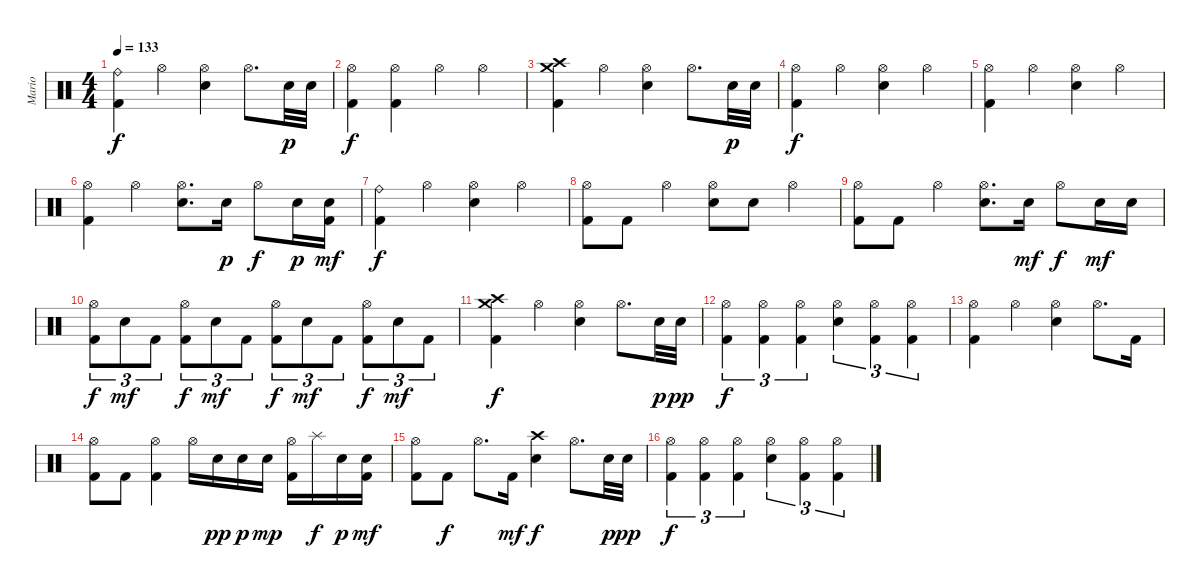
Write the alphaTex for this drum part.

\track ("Mario" "Mario") {instrument percussion}
\staff {score}
\articulation defaults
\ts (4 4)
\tempo 133
\clef neutral
\ks c
("Ride (bell)" "Kick (hit) 2").4{dy f} "Hi-Hat (open)".4 ("Hi-Hat (open)" "Electric Snare (hit)").4 "Hi-Hat (open)".8{d} "Electric Snare (hit)".32{dy p} "Electric Snare (hit)".32 |
("Hi-Hat (open)" "Kick (hit) 2").4{dy f} ("Hi-Hat (open)" "Kick (hit) 2").4 "Hi-Hat (open)".4 "Hi-Hat (open)".4 |
("Crash medium (hit)" "Crash high (hit)" "Kick (hit) 2").4 "Hi-Hat (open)".4 ("Hi-Hat (open)" "Electric Snare (hit)").4 "Hi-Hat (open)".8{d} "Electric Snare (hit)".32{dy p} "Electric Snare (hit)".32 |
("Hi-Hat (open)" "Kick (hit) 2").4{dy f} "Hi-Hat (open)".4 ("Hi-Hat (open)" "Electric Snare (hit)").4 "Hi-Hat (open)".4 |
("Hi-Hat (open)" "Kick (hit) 2").4 "Hi-Hat (open)".4 ("Hi-Hat (open)" "Electric Snare (hit)").4 "Hi-Hat (open)".4 |
("Hi-Hat (open)" "Kick (hit) 2").4 "Hi-Hat (open)".4 ("Hi-Hat (open)" "Electric Snare (hit)").8{d} "Electric Snare (hit)".16{dy p} "Hi-Hat (open)".8{dy f} "Electric Snare (hit)".16{dy p} ("Electric Snare (hit)" "Kick (hit) 2").16{dy mf} |
("Ride (bell)" "Kick (hit) 2").4{dy f} "Hi-Hat (open)".4 ("Hi-Hat (open)" "Electric Snare (hit)").4 "Hi-Hat (open)".4 |
("Hi-Hat (open)" "Kick (hit) 2").8 "Kick (hit) 2".8 "Hi-Hat (open)".4 ("Hi-Hat (open)" "Electric Snare (hit)").8 "Electric Snare (hit)".8 "Hi-Hat (open)".4 |
("Hi-Hat (open)" "Kick (hit) 2").8 "Kick (hit) 2".8 "Hi-Hat (open)".4 ("Hi-Hat (open)" "Electric Snare (hit)").8{d} "Electric Snare (hit)".16{dy mf} "Hi-Hat (open)".8{dy f} "Electric Snare (hit)".16{dy mf} "Electric Snare (hit)".16 |
("Hi-Hat (open)" "Kick (hit) 2").8{tu (3 2) dy f} "Electric Snare (hit)".8{tu (3 2) dy mf} "Kick (hit) 2".8{tu (3 2)} ("Hi-Hat (open)" "Kick (hit) 2").8{tu (3 2) dy f} "Electric Snare (hit)".8{tu (3 2) dy mf} "Kick (hit) 2".8{tu (3 2)} ("Hi-Hat (open)" "Kick (hit) 2").8{tu (3 2) dy f} "Electric Snare (hit)".8{tu (3 2) dy mf} "Kick (hit) 2".8{tu (3 2)} ("Hi-Hat (open)" "Kick (hit) 2").8{tu (3 2) dy f} "Electric Snare (hit)".8{tu (3 2) dy mf} "Kick (hit) 2".8{tu (3 2)} |
("Crash medium (hit)" "Crash high (hit)" "Kick (hit) 2").4{dy f} "Hi-Hat (open)".4 ("Hi-Hat (open)" "Electric Snare (hit)").4 "Hi-Hat (open)".8{d} "Electric Snare (hit)".32{dy p} "Electric Snare (hit)".32{dy pp} |
("Hi-Hat (open)" "Kick (hit) 2").4{tu (3 2) dy f} ("Hi-Hat (open)" "Kick (hit) 2").4{tu (3 2)} ("Hi-Hat (open)" "Kick (hit) 2").4{tu (3 2)} ("Hi-Hat (open)" "Electric Snare (hit)").4{tu (3 2)} ("Hi-Hat (open)" "Kick (hit) 2").4{tu (3 2)} ("Hi-Hat (open)" "Kick (hit) 2").4{tu (3 2)} |
("Hi-Hat (open)" "Kick (hit) 2").4 "Hi-Hat (open)".4 ("Hi-Hat (open)" "Electric Snare (hit)").4 "Hi-Hat (open)".8{d} "Kick (hit) 2".16 |
("Hi-Hat (open)" "Kick (hit) 2").8 "Kick (hit) 2".8 ("Hi-Hat (open)" "Kick (hit) 2").4 "Hi-Hat (open)".16 "Electric Snare (hit)".16{dy pp} "Electric Snare (hit)".16{dy p} "Electric Snare (hit)".16{dy mp} ("Hi-Hat (open)" "Kick (hit) 2").16 "Splash (hit)".16{dy f} "Electric Snare (hit)".16{dy p} ("Electric Snare (hit)" "Kick (hit) 2").16{dy mf} |
("Hi-Hat (open)" "Kick (hit) 2").8 "Kick (hit) 2".8{dy f} "Hi-Hat (open)".8{d} "Kick (hit) 2".16{dy mf} ("Crash high (hit)" "Electric Snare (hit)").4{dy f} "Hi-Hat (open)".8{d} "Electric Snare (hit)".32{dy p} "Electric Snare (hit)".32{dy pp} |
("Hi-Hat (open)" "Kick (hit) 2").4{tu (3 2) dy f} ("Hi-Hat (open)" "Kick (hit) 2").4{tu (3 2)} ("Hi-Hat (open)" "Kick (hit) 2").4{tu (3 2)} ("Hi-Hat (open)" "Electric Snare (hit)").4{tu (3 2)} ("Hi-Hat (open)" "Kick (hit) 2").4{tu (3 2)} ("Hi-Hat (open)" "Kick (hit) 2").4{tu (3 2)}
